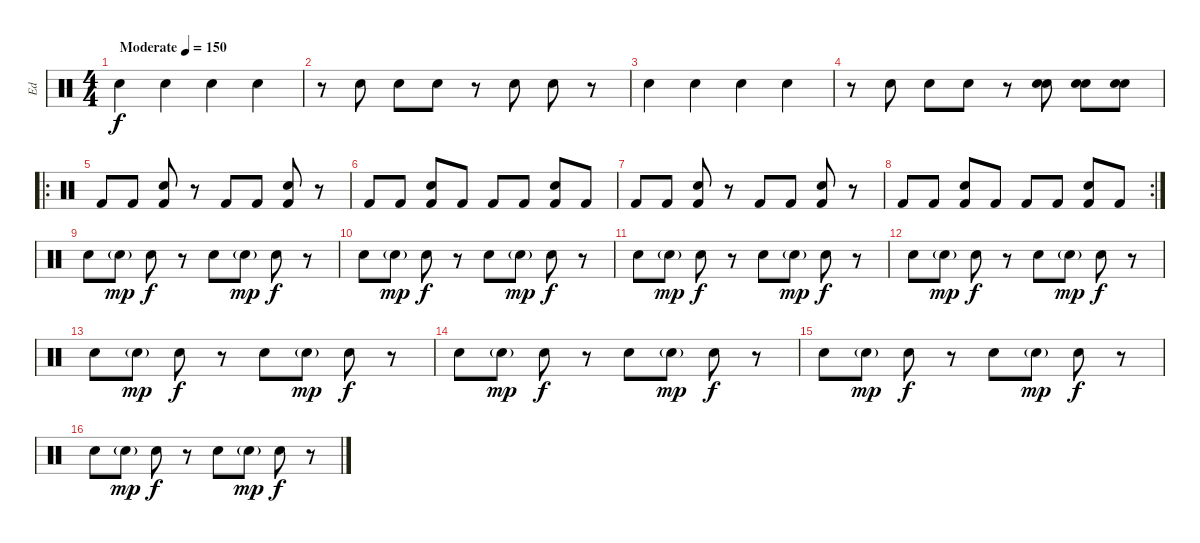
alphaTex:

\track ("Ed" "Ed") {instrument percussion}
\staff {score}
\articulation defaults
\ts (4 4)
\tempo (150 "Moderate")
\clef neutral
\ks c "Hand Clap (hit)".4{dy f} "Hand Clap (hit)".4 "Hand Clap (hit)".4 "Hand Clap (hit)".4
|
r.8 "Hand Clap (hit)".8 "Hand Clap (hit)".8 "Hand Clap (hit)".8 r.8 "Hand Clap (hit)".8 "Hand Clap (hit)".8 r.8 |
"Hand Clap (hit)".4 "Hand Clap (hit)".4 "Hand Clap (hit)".4 "Hand Clap (hit)".4 |
r.8 "Hand Clap (hit)".8 "Hand Clap (hit)".8 "Hand Clap (hit)".8 r.8 ("Snare (hit) 2" "Electric Snare (hit)").8 ("Snare (hit) 2" "Electric Snare (hit)").8 ("Snare (hit) 2" "Electric Snare (hit)").8 |
\ro "Kick (hit) 2".8 "Kick (hit) 2".8
("Electric Snare (hit)" "Kick (hit) 2").8 r.8 "Kick (hit) 2".8 "Kick (hit) 2".8 ("Electric Snare (hit)" "Kick (hit) 2").8 r.8 |
"Kick (hit) 2".8 "Kick (hit) 2".8 ("Electric Snare (hit)" "Kick (hit) 2").8 "Kick (hit) 2".8 "Kick (hit) 2".8 "Kick (hit) 2".8 ("Electric Snare (hit)" "Kick (hit) 2").8 "Kick (hit) 2".8 |
"Kick (hit) 2".8 "Kick (hit) 2".8 ("Electric Snare (hit)" "Kick (hit) 2").8 r.8 "Kick (hit) 2".8 "Kick (hit) 2".8 ("Electric Snare (hit)" "Kick (hit) 2").8 r.8 |
\rc 2 "Kick (hit) 2".8 "Kick (hit) 2".8
("Electric Snare (hit)" "Kick (hit) 2").8 "Kick (hit) 2".8 "Kick (hit) 2".8 "Kick (hit) 2".8 ("Electric Snare (hit)" "Kick (hit) 2").8 "Kick (hit) 2".8 |
"Electric Snare (hit)".8 "Electric Snare (hit)"{g}.8{dy mp} "Electric Snare (hit)".8{dy f} r.8 "Electric Snare (hit)".8 "Electric Snare (hit)"{g}.8{dy mp} "Electric Snare (hit)".8{dy f} r.8 |
"Electric Snare (hit)".8 "Electric Snare (hit)"{g}.8{dy mp} "Electric Snare (hit)".8{dy f} r.8 "Electric Snare (hit)".8 "Electric Snare (hit)"{g}.8{dy mp} "Electric Snare (hit)".8{dy f} r.8 |
"Electric Snare (hit)".8 "Electric Snare (hit)"{g}.8{dy mp} "Electric Snare (hit)".8{dy f} r.8 "Electric Snare (hit)".8 "Electric Snare (hit)"{g}.8{dy mp} "Electric Snare (hit)".8{dy f} r.8 |
"Electric Snare (hit)".8 "Electric Snare (hit)"{g}.8{dy mp} "Electric Snare (hit)".8{dy f} r.8 "Electric Snare (hit)".8 "Electric Snare (hit)"{g}.8{dy mp} "Electric Snare (hit)".8{dy f} r.8 |
"Electric Snare (hit)".8 "Electric Snare (hit)"{g}.8{dy mp} "Electric Snare (hit)".8{dy f} r.8 "Electric Snare (hit)".8 "Electric Snare (hit)"{g}.8{dy mp} "Electric Snare (hit)".8{dy f} r.8 |
"Electric Snare (hit)".8 "Electric Snare (hit)"{g}.8{dy mp} "Electric Snare (hit)".8{dy f} r.8 "Electric Snare (hit)".8 "Electric Snare (hit)"{g}.8{dy mp} "Electric Snare (hit)".8{dy f} r.8 |
"Electric Snare (hit)".8 "Electric Snare (hit)"{g}.8{dy mp} "Electric Snare (hit)".8{dy f} r.8 "Electric Snare (hit)".8 "Electric Snare (hit)"{g}.8{dy mp} "Electric Snare (hit)".8{dy f} r.8 |
"Electric Snare (hit)".8 "Electric Snare (hit)"{g}.8{dy mp} "Electric Snare (hit)".8{dy f} r.8 "Electric Snare (hit)".8 "Electric Snare (hit)"{g}.8{dy mp} "Electric Snare (hit)".8{dy f} r.8
